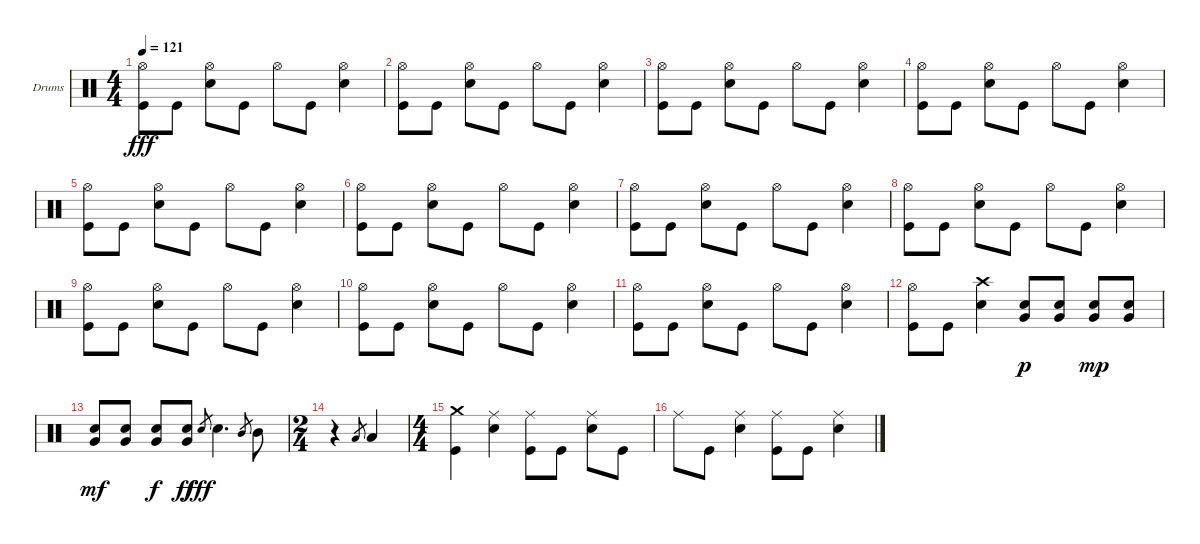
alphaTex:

\bracketExtendMode groupsimilarinstruments
\firstSystemTrackNameOrientation horizontal
\otherSystemsTrackNameOrientation horizontal
\track ("Drumkit" "Drums") {instrument percussion}
\staff {score}
\articulation defaults
\ts (4 4)
\tempo 121
\clef neutral
\ks c
("Kick (hit)" "Hi-Hat (open)").8{dy fff} "Kick (hit)".8 ("Snare (hit) 2" "Hi-Hat (open)").8 "Kick (hit)".8 "Hi-Hat (open)".8 "Kick (hit)".8 ("Snare (hit) 2" "Hi-Hat (open)").4 |
("Kick (hit)" "Hi-Hat (open)").8 "Kick (hit)".8 ("Snare (hit) 2" "Hi-Hat (open)").8 "Kick (hit)".8 "Hi-Hat (open)".8 "Kick (hit)".8 ("Snare (hit) 2" "Hi-Hat (open)").4 |
("Kick (hit)" "Hi-Hat (open)").8 "Kick (hit)".8 ("Snare (hit) 2" "Hi-Hat (open)").8 "Kick (hit)".8 "Hi-Hat (open)".8 "Kick (hit)".8 ("Snare (hit) 2" "Hi-Hat (open)").4 |
("Kick (hit)" "Hi-Hat (open)").8 "Kick (hit)".8 ("Snare (hit) 2" "Hi-Hat (open)").8 "Kick (hit)".8 "Hi-Hat (open)".8 "Kick (hit)".8 ("Snare (hit) 2" "Hi-Hat (open)").4 |
("Kick (hit)" "Hi-Hat (open)").8 "Kick (hit)".8 ("Snare (hit) 2" "Hi-Hat (open)").8 "Kick (hit)".8 "Hi-Hat (open)".8 "Kick (hit)".8 ("Snare (hit) 2" "Hi-Hat (open)").4 |
("Kick (hit)" "Hi-Hat (open)").8 "Kick (hit)".8 ("Snare (hit) 2" "Hi-Hat (open)").8 "Kick (hit)".8 "Hi-Hat (open)".8 "Kick (hit)".8 ("Snare (hit) 2" "Hi-Hat (open)").4 |
("Kick (hit)" "Hi-Hat (open)").8 "Kick (hit)".8 ("Snare (hit) 2" "Hi-Hat (open)").8 "Kick (hit)".8 "Hi-Hat (open)".8 "Kick (hit)".8 ("Snare (hit) 2" "Hi-Hat (open)").4 |
("Kick (hit)" "Hi-Hat (open)").8 "Kick (hit)".8 ("Snare (hit) 2" "Hi-Hat (open)").8 "Kick (hit)".8 "Hi-Hat (open)".8 "Kick (hit)".8 ("Snare (hit) 2" "Hi-Hat (open)").4 |
("Kick (hit)" "Hi-Hat (open)").8 "Kick (hit)".8 ("Snare (hit) 2" "Hi-Hat (open)").8 "Kick (hit)".8 "Hi-Hat (open)".8 "Kick (hit)".8 ("Snare (hit) 2" "Hi-Hat (open)").4 |
("Kick (hit)" "Hi-Hat (open)").8 "Kick (hit)".8 ("Snare (hit) 2" "Hi-Hat (open)").8 "Kick (hit)".8 "Hi-Hat (open)".8 "Kick (hit)".8 ("Snare (hit) 2" "Hi-Hat (open)").4 |
("Kick (hit)" "Hi-Hat (open)").8 "Kick (hit)".8 ("Snare (hit) 2" "Hi-Hat (open)").8 "Kick (hit)".8 "Hi-Hat (open)".8 "Kick (hit)".8 ("Snare (hit) 2" "Hi-Hat (open)").4 |
("Kick (hit)" "Hi-Hat (open)").8 "Kick (hit)".8 ("Snare (hit) 2" "Crash high (hit)").4 ("Snare (hit) 2" "Very Low Tom (hit)").8{dy p} ("Snare (hit) 2" "Very Low Tom (hit)").8 ("Snare (hit) 2" "Very Low Tom (hit)").8{dy mp} ("Snare (hit) 2" "Very Low Tom (hit)").8 |
("Snare (hit) 2" "Very Low Tom (hit)").8{dy mf} ("Snare (hit) 2" "Very Low Tom (hit)").8 ("Snare (hit) 2" "Very Low Tom (hit)").8{dy f} ("Snare (hit) 2" "Very Low Tom (hit)").8{dy ff} "Snare (hit) 2".8{gr dy fff} "Snare (hit) 2".4{d} "Mid Tom (hit)".8{gr} "Mid Tom (hit)".8 |
\ts (2 4)
r.4 "Low Tom (hit)".8{gr} "Low Tom (hit)".4 |
\ts (4 4)
("Kick (hit)" "Crash medium (hit)").4 ("Snare (hit) 2" "Ride (middle)").4 ("Kick (hit)" "Ride (middle)").8 "Kick (hit)".8 ("Snare (hit) 2" "Ride (middle)").8 "Kick (hit)".8 |
"Ride (middle)".8 "Kick (hit)".8 ("Snare (hit) 2" "Ride (middle)").4 ("Kick (hit)" "Ride (middle)").8 "Kick (hit)".8 ("Snare (hit) 2" "Ride (middle)").4
